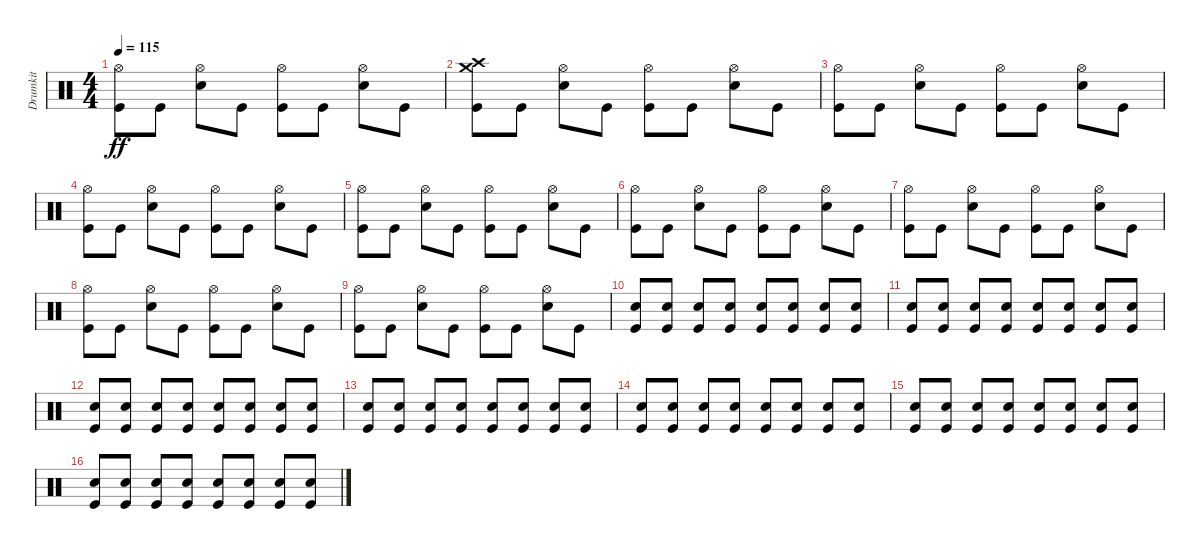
\track ("Drumkit" "Drumkit") {instrument percussion}
\staff {score}
\articulation defaults
\ts (4 4)
\tempo 115
\clef neutral
\ks c
("Kick (hit)" "Hi-Hat (open)").8{dy ff} "Kick (hit)".8 ("Snare (hit) 2" "Hi-Hat (open)").8 "Kick (hit)".8 ("Kick (hit)" "Hi-Hat (open)").8 "Kick (hit)".8 ("Snare (hit) 2" "Hi-Hat (open)").8 "Kick (hit)".8 |
("Kick (hit)" "Crash medium (hit)" "Crash high (hit)").8 "Kick (hit)".8 ("Snare (hit) 2" "Hi-Hat (open)").8 "Kick (hit)".8 ("Kick (hit)" "Hi-Hat (open)").8 "Kick (hit)".8 ("Snare (hit) 2" "Hi-Hat (open)").8 "Kick (hit)".8 |
("Kick (hit)" "Hi-Hat (open)").8 "Kick (hit)".8 ("Snare (hit) 2" "Hi-Hat (open)").8 "Kick (hit)".8 ("Kick (hit)" "Hi-Hat (open)").8 "Kick (hit)".8 ("Snare (hit) 2" "Hi-Hat (open)").8 "Kick (hit)".8 |
("Kick (hit)" "Hi-Hat (open)").8 "Kick (hit)".8 ("Snare (hit) 2" "Hi-Hat (open)").8 "Kick (hit)".8 ("Kick (hit)" "Hi-Hat (open)").8 "Kick (hit)".8 ("Snare (hit) 2" "Hi-Hat (open)").8 "Kick (hit)".8 |
("Kick (hit)" "Hi-Hat (open)").8 "Kick (hit)".8 ("Snare (hit) 2" "Hi-Hat (open)").8 "Kick (hit)".8 ("Kick (hit)" "Hi-Hat (open)").8 "Kick (hit)".8 ("Snare (hit) 2" "Hi-Hat (open)").8 "Kick (hit)".8 |
("Kick (hit)" "Hi-Hat (open)").8 "Kick (hit)".8 ("Snare (hit) 2" "Hi-Hat (open)").8 "Kick (hit)".8 ("Kick (hit)" "Hi-Hat (open)").8 "Kick (hit)".8 ("Snare (hit) 2" "Hi-Hat (open)").8 "Kick (hit)".8 |
("Kick (hit)" "Hi-Hat (open)").8 "Kick (hit)".8 ("Snare (hit) 2" "Hi-Hat (open)").8 "Kick (hit)".8 ("Kick (hit)" "Hi-Hat (open)").8 "Kick (hit)".8 ("Snare (hit) 2" "Hi-Hat (open)").8 "Kick (hit)".8 |
("Kick (hit)" "Hi-Hat (open)").8 "Kick (hit)".8 ("Snare (hit) 2" "Hi-Hat (open)").8 "Kick (hit)".8 ("Kick (hit)" "Hi-Hat (open)").8 "Kick (hit)".8 ("Snare (hit) 2" "Hi-Hat (open)").8 "Kick (hit)".8 |
("Kick (hit)" "Hi-Hat (open)").8 "Kick (hit)".8 ("Snare (hit) 2" "Hi-Hat (open)").8 "Kick (hit)".8 ("Kick (hit)" "Hi-Hat (open)").8 "Kick (hit)".8 ("Snare (hit) 2" "Hi-Hat (open)").8 "Kick (hit)".8 |
("Kick (hit)" "Snare (hit) 2").8 ("Kick (hit)" "Snare (hit) 2").8 ("Kick (hit)" "Snare (hit) 2").8 ("Kick (hit)" "Snare (hit) 2").8 ("Kick (hit)" "Snare (hit) 2").8 ("Kick (hit)" "Snare (hit) 2").8 ("Kick (hit)" "Snare (hit) 2").8 ("Kick (hit)" "Snare (hit) 2").8 |
("Kick (hit)" "Snare (hit) 2").8 ("Kick (hit)" "Snare (hit) 2").8 ("Kick (hit)" "Snare (hit) 2").8 ("Kick (hit)" "Snare (hit) 2").8 ("Kick (hit)" "Snare (hit) 2").8 ("Kick (hit)" "Snare (hit) 2").8 ("Kick (hit)" "Snare (hit) 2").8 ("Kick (hit)" "Snare (hit) 2").8 |
("Kick (hit)" "Snare (hit) 2").8 ("Kick (hit)" "Snare (hit) 2").8 ("Kick (hit)" "Snare (hit) 2").8 ("Kick (hit)" "Snare (hit) 2").8 ("Kick (hit)" "Snare (hit) 2").8 ("Kick (hit)" "Snare (hit) 2").8 ("Kick (hit)" "Snare (hit) 2").8 ("Kick (hit)" "Snare (hit) 2").8 |
("Kick (hit)" "Snare (hit) 2").8 ("Kick (hit)" "Snare (hit) 2").8 ("Kick (hit)" "Snare (hit) 2").8 ("Kick (hit)" "Snare (hit) 2").8 ("Kick (hit)" "Snare (hit) 2").8 ("Kick (hit)" "Snare (hit) 2").8 ("Kick (hit)" "Snare (hit) 2").8 ("Kick (hit)" "Snare (hit) 2").8 |
("Kick (hit)" "Snare (hit) 2").8 ("Kick (hit)" "Snare (hit) 2").8 ("Kick (hit)" "Snare (hit) 2").8 ("Kick (hit)" "Snare (hit) 2").8 ("Kick (hit)" "Snare (hit) 2").8 ("Kick (hit)" "Snare (hit) 2").8 ("Kick (hit)" "Snare (hit) 2").8 ("Kick (hit)" "Snare (hit) 2").8 |
("Kick (hit)" "Snare (hit) 2").8 ("Kick (hit)" "Snare (hit) 2").8 ("Kick (hit)" "Snare (hit) 2").8 ("Kick (hit)" "Snare (hit) 2").8 ("Kick (hit)" "Snare (hit) 2").8 ("Kick (hit)" "Snare (hit) 2").8 ("Kick (hit)" "Snare (hit) 2").8 ("Kick (hit)" "Snare (hit) 2").8 |
("Kick (hit)" "Snare (hit) 2").8 ("Kick (hit)" "Snare (hit) 2").8 ("Kick (hit)" "Snare (hit) 2").8 ("Kick (hit)" "Snare (hit) 2").8 ("Kick (hit)" "Snare (hit) 2").8 ("Kick (hit)" "Snare (hit) 2").8 ("Kick (hit)" "Snare (hit) 2").8 ("Kick (hit)" "Snare (hit) 2").8
